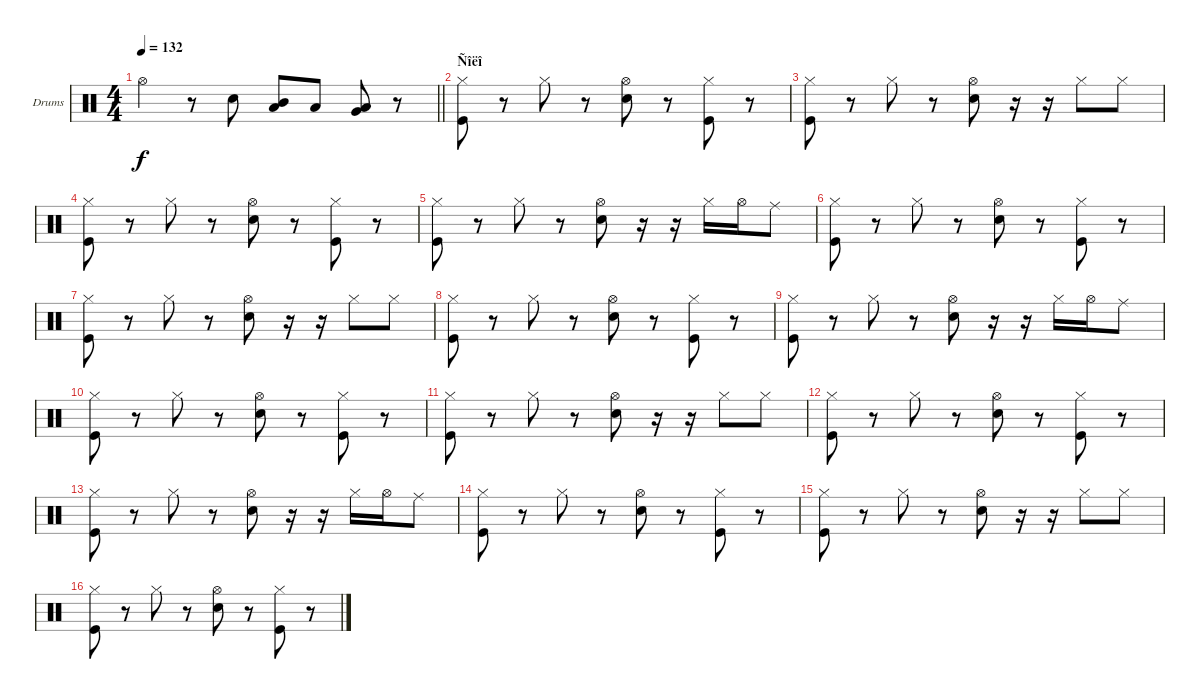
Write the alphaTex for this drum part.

\bracketExtendMode groupsimilarinstruments
\firstSystemTrackNameOrientation horizontal
\otherSystemsTrackNameOrientation horizontal
\track ("Drumkit" "Drums") {instrument percussion}
\staff {score}
\articulation defaults
\ts (4 4)
\tempo 132
\clef neutral
\barLineRight lightlight
\ks c "Hi-Hat (open)".4{dy f}
r.8 "Snare (hit) 2".8 ("Low Tom (hit)" "Mid Tom (hit)").8 "Low Tom (hit)".8 ("Low Tom (hit)" "Very Low Tom (hit)").8 r.8 |
\section ("" "Ñîëî")
("Kick (hit)" "Hi-Hat (closed)").8 r.8 "Hi-Hat (closed)".8 r.8 ("Snare (hit) 2" "Hi-Hat (open)").8 r.8 ("Kick (hit)" "Hi-Hat (closed)").8 r.8 |
("Kick (hit)" "Hi-Hat (closed)").8 r.8 "Hi-Hat (closed)".8 r.8 ("Snare (hit) 2" "Hi-Hat (open)").8 r.16 r.16 "Hi-Hat (closed)".8 "Hi-Hat (closed)".8 |
("Kick (hit)" "Hi-Hat (closed)").8 r.8 "Hi-Hat (closed)".8 r.8 ("Snare (hit) 2" "Hi-Hat (open)").8 r.8 ("Kick (hit)" "Hi-Hat (closed)").8 r.8 |
("Kick (hit)" "Hi-Hat (closed)").8 r.8 "Hi-Hat (closed)".8 r.8 ("Snare (hit) 2" "Hi-Hat (open)").8 r.16 r.16 "Hi-Hat (closed)".16 "Hi-Hat (open)".16 "Ride (middle)".8 |
("Kick (hit)" "Hi-Hat (closed)").8 r.8 "Hi-Hat (closed)".8 r.8 ("Snare (hit) 2" "Hi-Hat (open)").8 r.8 ("Kick (hit)" "Hi-Hat (closed)").8 r.8 |
("Kick (hit)" "Hi-Hat (closed)").8 r.8 "Hi-Hat (closed)".8 r.8 ("Snare (hit) 2" "Hi-Hat (open)").8 r.16 r.16 "Hi-Hat (closed)".8 "Hi-Hat (closed)".8 |
("Kick (hit)" "Hi-Hat (closed)").8 r.8 "Hi-Hat (closed)".8 r.8 ("Snare (hit) 2" "Hi-Hat (open)").8 r.8 ("Kick (hit)" "Hi-Hat (closed)").8 r.8 |
("Kick (hit)" "Hi-Hat (closed)").8 r.8 "Hi-Hat (closed)".8 r.8 ("Snare (hit) 2" "Hi-Hat (open)").8 r.16 r.16 "Hi-Hat (closed)".16 "Hi-Hat (open)".16 "Ride (middle)".8 |
("Kick (hit)" "Hi-Hat (closed)").8 r.8 "Hi-Hat (closed)".8 r.8 ("Snare (hit) 2" "Hi-Hat (open)").8 r.8 ("Kick (hit)" "Hi-Hat (closed)").8 r.8 |
("Kick (hit)" "Hi-Hat (closed)").8 r.8 "Hi-Hat (closed)".8 r.8 ("Snare (hit) 2" "Hi-Hat (open)").8 r.16 r.16 "Hi-Hat (closed)".8 "Hi-Hat (closed)".8 |
("Kick (hit)" "Hi-Hat (closed)").8 r.8 "Hi-Hat (closed)".8 r.8 ("Snare (hit) 2" "Hi-Hat (open)").8 r.8 ("Kick (hit)" "Hi-Hat (closed)").8 r.8 |
("Kick (hit)" "Hi-Hat (closed)").8 r.8 "Hi-Hat (closed)".8 r.8 ("Snare (hit) 2" "Hi-Hat (open)").8 r.16 r.16 "Hi-Hat (closed)".16 "Hi-Hat (open)".16 "Ride (middle)".8 |
("Kick (hit)" "Hi-Hat (closed)").8 r.8 "Hi-Hat (closed)".8 r.8 ("Snare (hit) 2" "Hi-Hat (open)").8 r.8 ("Kick (hit)" "Hi-Hat (closed)").8 r.8 |
("Kick (hit)" "Hi-Hat (closed)").8 r.8 "Hi-Hat (closed)".8 r.8 ("Snare (hit) 2" "Hi-Hat (open)").8 r.16 r.16 "Hi-Hat (closed)".8 "Hi-Hat (closed)".8 |
("Kick (hit)" "Hi-Hat (closed)").8 r.8 "Hi-Hat (closed)".8 r.8 ("Snare (hit) 2" "Hi-Hat (open)").8 r.8 ("Kick (hit)" "Hi-Hat (closed)").8 r.8
